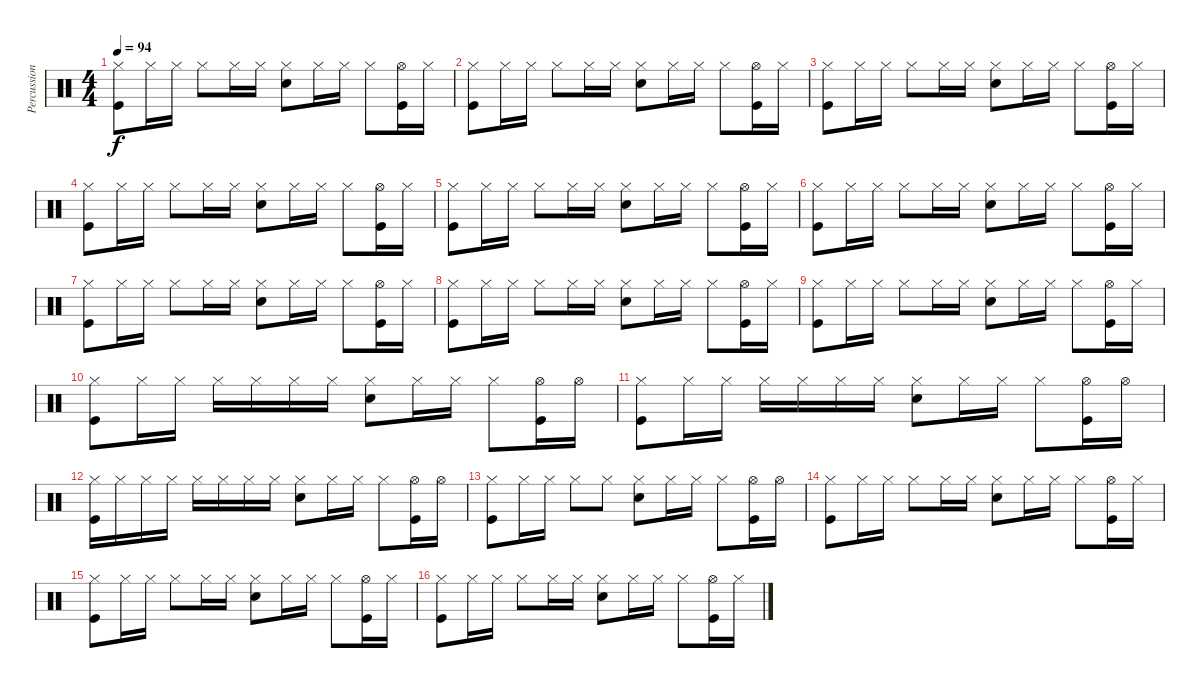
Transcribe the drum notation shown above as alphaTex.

\track ("Percussions" "Percussion") {instrument percussion}
\staff {score}
\articulation defaults
\ts (4 4)
\tempo 94
\clef neutral
\ks c
("Hi-Hat (closed)" "Kick (hit)").8{dy f} "Hi-Hat (closed)".16 "Hi-Hat (closed)".16 "Hi-Hat (closed)".8 "Hi-Hat (closed)".16 "Hi-Hat (closed)".16 ("Hi-Hat (closed)" "Electric Snare (hit)").8 "Hi-Hat (closed)".16 "Hi-Hat (closed)".16 "Hi-Hat (closed)".8 ("Hi-Hat (open)" "Kick (hit)").16 "Hi-Hat (closed)".16 |
("Hi-Hat (closed)" "Kick (hit)").8 "Hi-Hat (closed)".16 "Hi-Hat (closed)".16 "Hi-Hat (closed)".8 "Hi-Hat (closed)".16 "Hi-Hat (closed)".16 ("Hi-Hat (closed)" "Electric Snare (hit)").8 "Hi-Hat (closed)".16 "Hi-Hat (closed)".16 "Hi-Hat (closed)".8 ("Hi-Hat (open)" "Kick (hit)").16 "Hi-Hat (closed)".16 |
("Hi-Hat (closed)" "Kick (hit)").8 "Hi-Hat (closed)".16 "Hi-Hat (closed)".16 "Hi-Hat (closed)".8 "Hi-Hat (closed)".16 "Hi-Hat (closed)".16 ("Hi-Hat (closed)" "Electric Snare (hit)").8 "Hi-Hat (closed)".16 "Hi-Hat (closed)".16 "Hi-Hat (closed)".8 ("Hi-Hat (open)" "Kick (hit)").16 "Hi-Hat (closed)".16 |
("Hi-Hat (closed)" "Kick (hit)").8 "Hi-Hat (closed)".16 "Hi-Hat (closed)".16 "Hi-Hat (closed)".8 "Hi-Hat (closed)".16 "Hi-Hat (closed)".16 ("Hi-Hat (closed)" "Electric Snare (hit)").8 "Hi-Hat (closed)".16 "Hi-Hat (closed)".16 "Hi-Hat (closed)".8 ("Hi-Hat (open)" "Kick (hit)").16 "Hi-Hat (closed)".16 |
("Hi-Hat (closed)" "Kick (hit)").8 "Hi-Hat (closed)".16 "Hi-Hat (closed)".16 "Hi-Hat (closed)".8 "Hi-Hat (closed)".16 "Hi-Hat (closed)".16 ("Hi-Hat (closed)" "Electric Snare (hit)").8 "Hi-Hat (closed)".16 "Hi-Hat (closed)".16 "Hi-Hat (closed)".8 ("Hi-Hat (open)" "Kick (hit)").16 "Hi-Hat (closed)".16 |
("Hi-Hat (closed)" "Kick (hit)").8 "Hi-Hat (closed)".16 "Hi-Hat (closed)".16 "Hi-Hat (closed)".8 "Hi-Hat (closed)".16 "Hi-Hat (closed)".16 ("Hi-Hat (closed)" "Electric Snare (hit)").8 "Hi-Hat (closed)".16 "Hi-Hat (closed)".16 "Hi-Hat (closed)".8 ("Hi-Hat (open)" "Kick (hit)").16 "Hi-Hat (closed)".16 |
("Hi-Hat (closed)" "Kick (hit)").8 "Hi-Hat (closed)".16 "Hi-Hat (closed)".16 "Hi-Hat (closed)".8 "Hi-Hat (closed)".16 "Hi-Hat (closed)".16 ("Hi-Hat (closed)" "Electric Snare (hit)").8 "Hi-Hat (closed)".16 "Hi-Hat (closed)".16 "Hi-Hat (closed)".8 ("Hi-Hat (open)" "Kick (hit)").16 "Hi-Hat (closed)".16 |
("Hi-Hat (closed)" "Kick (hit)").8 "Hi-Hat (closed)".16 "Hi-Hat (closed)".16 "Hi-Hat (closed)".8 "Hi-Hat (closed)".16 "Hi-Hat (closed)".16 ("Hi-Hat (closed)" "Electric Snare (hit)").8 "Hi-Hat (closed)".16 "Hi-Hat (closed)".16 "Hi-Hat (closed)".8 ("Hi-Hat (open)" "Kick (hit)").16 "Hi-Hat (closed)".16 |
("Hi-Hat (closed)" "Kick (hit)").8 "Hi-Hat (closed)".16 "Hi-Hat (closed)".16 "Hi-Hat (closed)".8 "Hi-Hat (closed)".16 "Hi-Hat (closed)".16 ("Hi-Hat (closed)" "Electric Snare (hit)").8 "Hi-Hat (closed)".16 "Hi-Hat (closed)".16 "Hi-Hat (closed)".8 ("Hi-Hat (open)" "Kick (hit)").16 "Hi-Hat (closed)".16 |
("Hi-Hat (closed)" "Kick (hit)").8 "Hi-Hat (closed)".16 "Hi-Hat (closed)".16 "Hi-Hat (closed)".16 "Hi-Hat (closed)".16 "Hi-Hat (closed)".16 "Hi-Hat (closed)".16 ("Hi-Hat (closed)" "Electric Snare (hit)").8 "Hi-Hat (closed)".16 "Hi-Hat (closed)".16 "Hi-Hat (closed)".8 ("Hi-Hat (open)" "Kick (hit)").16 "Hi-Hat (open)".16 |
("Hi-Hat (closed)" "Kick (hit)").8 "Hi-Hat (closed)".16 "Hi-Hat (closed)".16 "Hi-Hat (closed)".16 "Hi-Hat (closed)".16 "Hi-Hat (closed)".16 "Hi-Hat (closed)".16 ("Hi-Hat (closed)" "Electric Snare (hit)").8 "Hi-Hat (closed)".16 "Hi-Hat (closed)".16 "Hi-Hat (closed)".8 ("Hi-Hat (open)" "Kick (hit)").16 "Hi-Hat (open)".16 |
("Hi-Hat (closed)" "Kick (hit)").16 "Hi-Hat (closed)".16 "Hi-Hat (closed)".16 "Hi-Hat (closed)".16 "Hi-Hat (closed)".16 "Hi-Hat (closed)".16 "Hi-Hat (closed)".16 "Hi-Hat (closed)".16 ("Hi-Hat (closed)" "Electric Snare (hit)").8 "Hi-Hat (closed)".16 "Hi-Hat (closed)".16 "Hi-Hat (closed)".8 ("Hi-Hat (open)" "Kick (hit)").16 "Hi-Hat (open)".16 |
("Hi-Hat (closed)" "Kick (hit)").8 "Hi-Hat (closed)".16 "Hi-Hat (closed)".16 "Hi-Hat (closed)".8 "Hi-Hat (closed)".8 ("Hi-Hat (closed)" "Electric Snare (hit)").8 "Hi-Hat (closed)".16 "Hi-Hat (closed)".16 "Hi-Hat (closed)".8 ("Hi-Hat (open)" "Kick (hit)").16 "Hi-Hat (open)".16 |
("Hi-Hat (closed)" "Kick (hit)").8 "Hi-Hat (closed)".16 "Hi-Hat (closed)".16 "Hi-Hat (closed)".8 "Hi-Hat (closed)".16 "Hi-Hat (closed)".16 ("Hi-Hat (closed)" "Electric Snare (hit)").8 "Hi-Hat (closed)".16 "Hi-Hat (closed)".16 "Hi-Hat (closed)".8 ("Hi-Hat (open)" "Kick (hit)").16 "Hi-Hat (closed)".16 |
("Hi-Hat (closed)" "Kick (hit)").8 "Hi-Hat (closed)".16 "Hi-Hat (closed)".16 "Hi-Hat (closed)".8 "Hi-Hat (closed)".16 "Hi-Hat (closed)".16 ("Hi-Hat (closed)" "Electric Snare (hit)").8 "Hi-Hat (closed)".16 "Hi-Hat (closed)".16 "Hi-Hat (closed)".8 ("Hi-Hat (open)" "Kick (hit)").16 "Hi-Hat (closed)".16 |
("Hi-Hat (closed)" "Kick (hit)").8 "Hi-Hat (closed)".16 "Hi-Hat (closed)".16 "Hi-Hat (closed)".8 "Hi-Hat (closed)".16 "Hi-Hat (closed)".16 ("Hi-Hat (closed)" "Electric Snare (hit)").8 "Hi-Hat (closed)".16 "Hi-Hat (closed)".16 "Hi-Hat (closed)".8 ("Hi-Hat (open)" "Kick (hit)").16 "Hi-Hat (closed)".16
